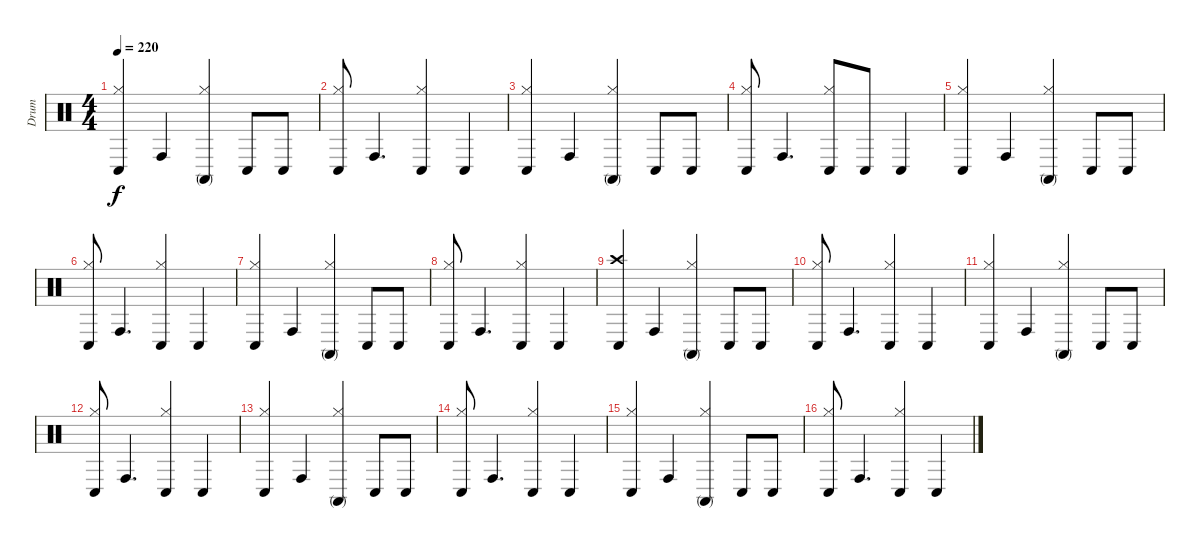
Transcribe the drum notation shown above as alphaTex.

\track ("Drum" "Drum") {instrument percussion}
\staff {score}
\articulation defaults
\ts (4 4)
\tempo 220
\clef neutral
\ks c
("Hi-Hat (closed)" "Conga low (hit)").4{dy f} "Conga high (hit)".4 ("Hi-Hat (closed)" "Conga high (mute)").4 "Conga low (hit)".8 "Conga low (hit)".8 |
("Hi-Hat (closed)" "Conga low (hit)").8 "Conga high (hit)".4{d} ("Hi-Hat (closed)" "Conga low (hit)").4 "Conga low (hit)".4 |
("Hi-Hat (closed)" "Conga low (hit)").4 "Conga high (hit)".4 ("Hi-Hat (closed)" "Conga high (mute)").4 "Conga low (hit)".8 "Conga low (hit)".8 |
("Hi-Hat (closed)" "Conga low (hit)").8 "Conga high (hit)".4{d} ("Hi-Hat (closed)" "Conga low (hit)").8 "Conga low (hit)".8 "Conga low (hit)".4 |
("Hi-Hat (closed)" "Conga low (hit)").4 "Conga high (hit)".4 ("Hi-Hat (closed)" "Conga high (mute)").4 "Conga low (hit)".8 "Conga low (hit)".8 |
("Hi-Hat (closed)" "Conga low (hit)").8 "Conga high (hit)".4{d} ("Hi-Hat (closed)" "Conga low (hit)").4 "Conga low (hit)".4 |
("Hi-Hat (closed)" "Conga low (hit)").4 "Conga high (hit)".4 ("Hi-Hat (closed)" "Conga high (mute)").4 "Conga low (hit)".8 "Conga low (hit)".8 |
("Hi-Hat (closed)" "Conga low (hit)").8 "Conga high (hit)".4{d} ("Hi-Hat (closed)" "Conga low (hit)").4 "Conga low (hit)".4 |
("Crash high (hit)" "Conga low (hit)").4 "Conga high (hit)".4 ("Hi-Hat (closed)" "Conga high (mute)").4 "Conga low (hit)".8 "Conga low (hit)".8 |
("Hi-Hat (closed)" "Conga low (hit)").8 "Conga high (hit)".4{d} ("Hi-Hat (closed)" "Conga low (hit)").4 "Conga low (hit)".4 |
("Hi-Hat (closed)" "Conga low (hit)").4 "Conga high (hit)".4 ("Hi-Hat (closed)" "Conga high (mute)").4 "Conga low (hit)".8 "Conga low (hit)".8 |
("Hi-Hat (closed)" "Conga low (hit)").8 "Conga high (hit)".4{d} ("Hi-Hat (closed)" "Conga low (hit)").4 "Conga low (hit)".4 |
("Hi-Hat (closed)" "Conga low (hit)").4 "Conga high (hit)".4 ("Hi-Hat (closed)" "Conga high (mute)").4 "Conga low (hit)".8 "Conga low (hit)".8 |
("Hi-Hat (closed)" "Conga low (hit)").8 "Conga high (hit)".4{d} ("Hi-Hat (closed)" "Conga low (hit)").4 "Conga low (hit)".4 |
("Hi-Hat (closed)" "Conga low (hit)").4 "Conga high (hit)".4 ("Hi-Hat (closed)" "Conga high (mute)").4 "Conga low (hit)".8 "Conga low (hit)".8 |
("Hi-Hat (closed)" "Conga low (hit)").8 "Conga high (hit)".4{d} ("Hi-Hat (closed)" "Conga low (hit)").4 "Conga low (hit)".4
